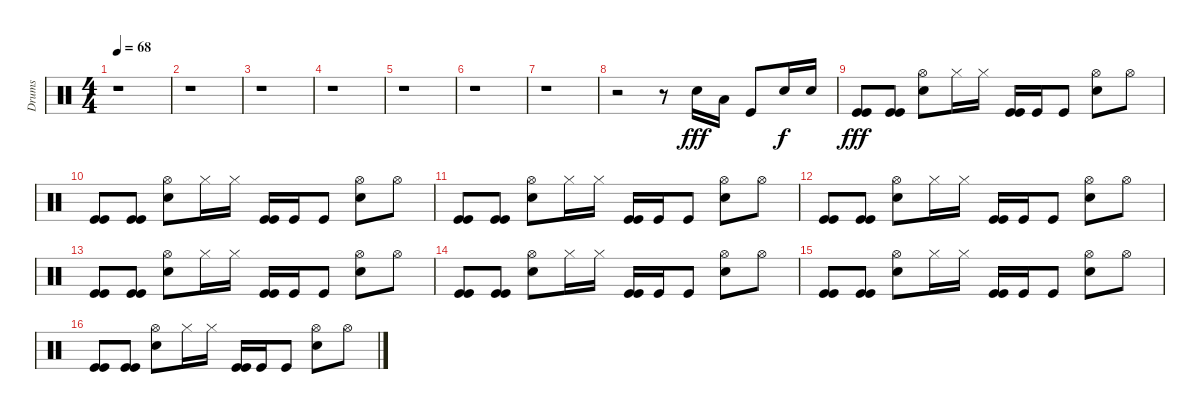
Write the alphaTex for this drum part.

\track ("Drums" "Drums") {instrument percussion}
\staff {score}
\articulation defaults
\ts (4 4)
\tempo 68
\clef neutral
\ks c
r.1{dy fff} |
r.1 |
r.1 |
r.1 |
r.1 |
r.1 |
r.1 |
r.2 r.8 "Electric Snare (hit)".16 "Low Floor Tom (hit)".16 "Kick (hit)".8 "Snare (hit) 2".16{dy f} "Snare (hit) 2".16 |
("Kick (hit)" "Kick (hit)").8{dy fff} ("Kick (hit)" "Kick (hit)").8 ("Snare (hit) 2" "Hi-Hat (open)").8 "Hi-Hat (closed)".16 "Hi-Hat (closed)".16 ("Kick (hit)" "Kick (hit)").16 "Kick (hit)".16 "Kick (hit)".8 ("Snare (hit) 2" "Hi-Hat (open)").8 "Hi-Hat (open)".8 |
("Kick (hit)" "Kick (hit)").8 ("Kick (hit)" "Kick (hit)").8 ("Snare (hit) 2" "Hi-Hat (open)").8 "Hi-Hat (closed)".16 "Hi-Hat (closed)".16 ("Kick (hit)" "Kick (hit)").16 "Kick (hit)".16 "Kick (hit)".8 ("Snare (hit) 2" "Hi-Hat (open)").8 "Hi-Hat (open)".8 |
("Kick (hit)" "Kick (hit)").8 ("Kick (hit)" "Kick (hit)").8 ("Snare (hit) 2" "Hi-Hat (open)").8 "Hi-Hat (closed)".16 "Hi-Hat (closed)".16 ("Kick (hit)" "Kick (hit)").16 "Kick (hit)".16 "Kick (hit)".8 ("Snare (hit) 2" "Hi-Hat (open)").8 "Hi-Hat (open)".8 |
("Kick (hit)" "Kick (hit)").8 ("Kick (hit)" "Kick (hit)").8 ("Snare (hit) 2" "Hi-Hat (open)").8 "Hi-Hat (closed)".16 "Hi-Hat (closed)".16 ("Kick (hit)" "Kick (hit)").16 "Kick (hit)".16 "Kick (hit)".8 ("Snare (hit) 2" "Hi-Hat (open)").8 "Hi-Hat (open)".8 |
("Kick (hit)" "Kick (hit)").8 ("Kick (hit)" "Kick (hit)").8 ("Snare (hit) 2" "Hi-Hat (open)").8 "Hi-Hat (closed)".16 "Hi-Hat (closed)".16 ("Kick (hit)" "Kick (hit)").16 "Kick (hit)".16 "Kick (hit)".8 ("Snare (hit) 2" "Hi-Hat (open)").8 "Hi-Hat (open)".8 |
("Kick (hit)" "Kick (hit)").8 ("Kick (hit)" "Kick (hit)").8 ("Snare (hit) 2" "Hi-Hat (open)").8 "Hi-Hat (closed)".16 "Hi-Hat (closed)".16 ("Kick (hit)" "Kick (hit)").16 "Kick (hit)".16 "Kick (hit)".8 ("Snare (hit) 2" "Hi-Hat (open)").8 "Hi-Hat (open)".8 |
("Kick (hit)" "Kick (hit)").8 ("Kick (hit)" "Kick (hit)").8 ("Snare (hit) 2" "Hi-Hat (open)").8 "Hi-Hat (closed)".16 "Hi-Hat (closed)".16 ("Kick (hit)" "Kick (hit)").16 "Kick (hit)".16 "Kick (hit)".8 ("Snare (hit) 2" "Hi-Hat (open)").8 "Hi-Hat (open)".8 |
("Kick (hit)" "Kick (hit)").8 ("Kick (hit)" "Kick (hit)").8 ("Snare (hit) 2" "Hi-Hat (open)").8 "Hi-Hat (closed)".16 "Hi-Hat (closed)".16 ("Kick (hit)" "Kick (hit)").16 "Kick (hit)".16 "Kick (hit)".8 ("Snare (hit) 2" "Hi-Hat (open)").8 "Hi-Hat (open)".8
